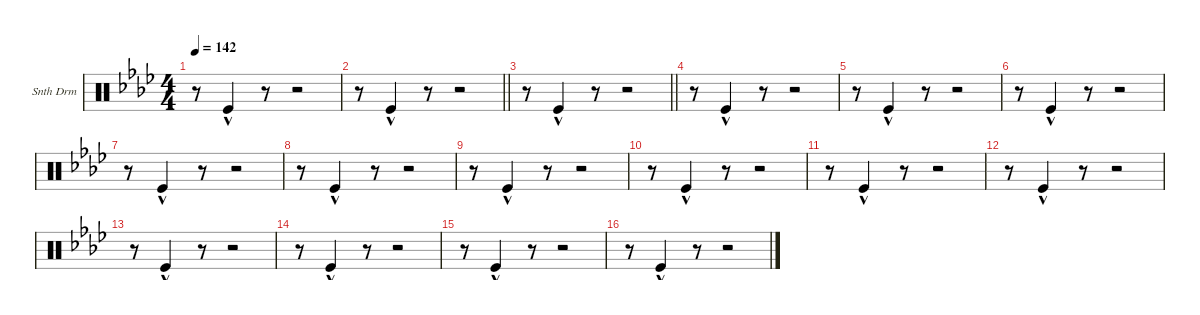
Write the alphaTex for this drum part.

\defaultSystemsLayout 4
\hideDynamics
\bracketExtendMode groupsimilarinstruments
\firstSystemTrackNameOrientation horizontal
\otherSystemsTrackNameOrientation horizontal
\track ("Synth Drum" "Snth Drm") {multiBarRest instrument percussion}
\staff {score}
\articulation defaults
\ts (4 4)
\tempo 142
\clef neutral
\ks ab
r.8{dy f} "Kick (hit)"{hac}.4 r.8 r.2 |
\barLineRight lightlight
r.8 "Kick (hit)"{hac}.4 r.8 r.2 |
\barLineRight lightlight
r.8 "Kick (hit)"{hac}.4 r.8 r.2 |
r.8 "Kick (hit)"{hac}.4 r.8 r.2 |
r.8 "Kick (hit)"{hac}.4 r.8 r.2 |
r.8 "Kick (hit)"{hac}.4 r.8 r.2 |
r.8 "Kick (hit)"{hac}.4 r.8 r.2 |
r.8 "Kick (hit)"{hac}.4 r.8 r.2 |
r.8 "Kick (hit)"{hac}.4 r.8 r.2 |
r.8 "Kick (hit)"{hac}.4 r.8 r.2 |
r.8 "Kick (hit)"{hac}.4 r.8 r.2 |
r.8 "Kick (hit)"{hac}.4 r.8 r.2 |
r.8 "Kick (hit)"{hac}.4 r.8 r.2 |
r.8 "Kick (hit)"{hac}.4 r.8 r.2 |
r.8 "Kick (hit)"{hac}.4 r.8 r.2 |
r.8 "Kick (hit)"{hac}.4 r.8 r.2
